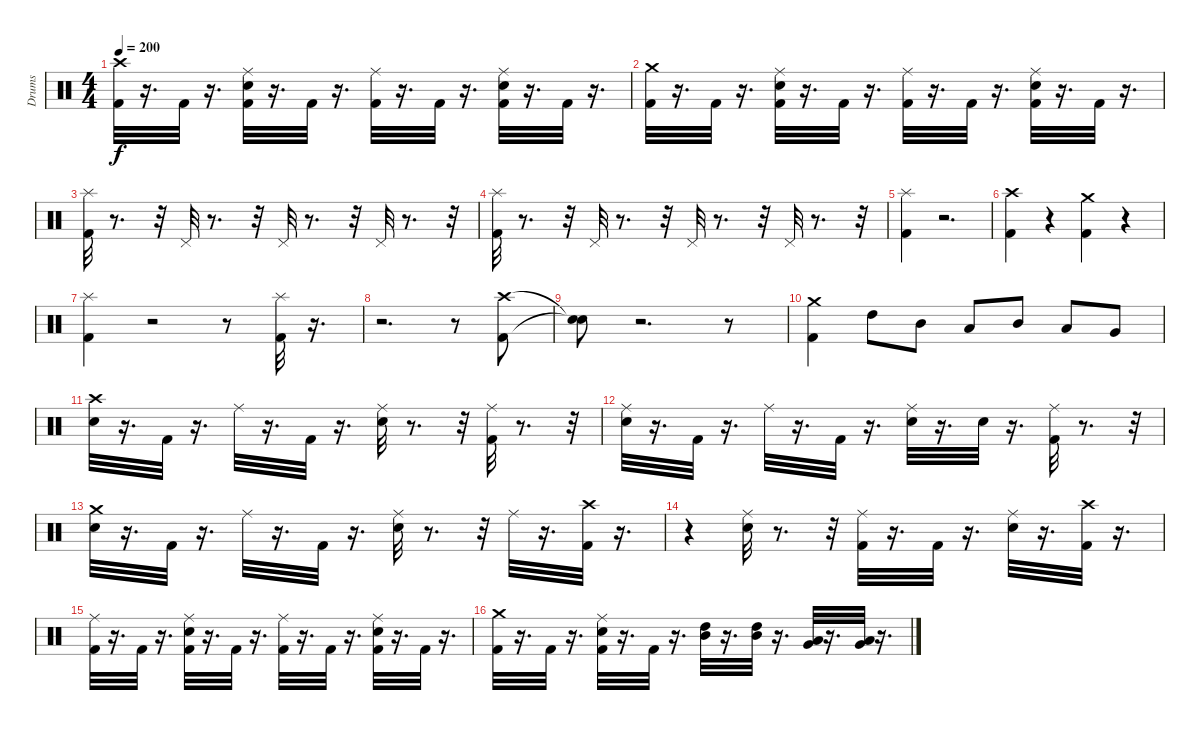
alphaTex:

\track ("Drums" "Drums") {instrument percussion}
\staff {score}
\articulation defaults
\ts (4 4)
\tempo 200
\clef neutral
\ks c
("Crash high (hit)" "Kick (hit) 2").32{dy f} r.16{d} "Kick (hit) 2".32 r.16{d} ("Electric Snare (hit)" "Ride (middle)" "Kick (hit) 2").32 r.16{d} "Kick (hit) 2".32 r.16{d} ("Ride (middle)" "Kick (hit) 2").32 r.16{d} "Kick (hit) 2".32 r.16{d} ("Electric Snare (hit)" "Ride (middle)" "Kick (hit) 2").32 r.16{d} "Kick (hit) 2".32 r.16{d} |
("Kick (hit) 2" "Crash medium (hit)").32 r.16{d} "Kick (hit) 2".32 r.16{d} ("Kick (hit) 2" "Electric Snare (hit)" "Ride (middle)").32 r.16{d} "Kick (hit) 2".32 r.16{d} ("Kick (hit) 2" "Ride (middle)").32 r.16{d} "Kick (hit) 2".32 r.16{d} ("Kick (hit) 2" "Electric Snare (hit)" "Ride (middle)").32 r.16{d} "Kick (hit) 2".32 r.16{d} |
("Splash (hit)" "Kick (hit) 2").32 r.8{d} r.32 "Pedal Hi-Hat (hit)".32 r.8{d} r.32 "Pedal Hi-Hat (hit)".32 r.8{d} r.32 "Pedal Hi-Hat (hit)".32 r.8{d} r.32 |
("Splash (hit)" "Kick (hit) 2").32 r.8{d} r.32 "Pedal Hi-Hat (hit)".32 r.8{d} r.32 "Pedal Hi-Hat (hit)".32 r.8{d} r.32 "Pedal Hi-Hat (hit)".32 r.8{d} r.32 |
("Splash (hit)" "Kick (hit) 2").4 r.2{d} |
("Crash high (hit)" "Kick (hit) 2").4 r.4 ("Crash medium (hit)" "Kick (hit) 2").4 r.4 |
("Splash (hit)" "Kick (hit) 2").4 r.2 r.8 ("Splash (hit)" "Kick (hit) 2").32 r.16{d} |
r.2{d} r.8 ("Crash high (hit)" "Kick (hit) 2").8 |
("Snare (hit)"{t} "Snare (hit)"{t}).8 r.2{d} r.8 |
("Crash medium (hit)" "Kick (hit) 2").4 "High Tom (hit)".8 "Mid Tom (hit)".8 "Low Tom (hit)".8 "Mid Tom (hit)".8 "Low Tom (hit)".8 "Very Low Tom (hit)".8 |
("Crash high (hit)" "Electric Snare (hit)").32 r.16{d} "Kick (hit) 2".32 r.16{d} "Ride (middle)".32 r.16{d} "Kick (hit) 2".32 r.16{d} ("Electric Snare (hit)" "Ride (middle)").32 r.8{d} r.32 ("Ride (middle)" "Kick (hit) 2").32 r.8{d} r.32 |
("Electric Snare (hit)" "Ride (middle)").32 r.16{d} "Kick (hit) 2".32 r.16{d} "Ride (middle)".32 r.16{d} "Kick (hit) 2".32 r.16{d} ("Ride (middle)" "Electric Snare (hit)").32 r.16{d} "Electric Snare (hit)".32 r.16{d} ("Ride (middle)" "Kick (hit) 2").32 r.8{d} r.32 |
("Electric Snare (hit)" "Crash medium (hit)").32 r.16{d} "Kick (hit) 2".32 r.16{d} "Ride (middle)".32 r.16{d} "Kick (hit) 2".32 r.16{d} ("Ride (middle)" "Electric Snare (hit)").32 r.8{d} r.32 "Ride (middle)".32 r.16{d} ("Crash high (hit)" "Kick (hit) 2").32 r.16{d} |
r.4 ("Electric Snare (hit)" "Ride (middle)").32 r.8{d} r.32 ("Ride (middle)" "Kick (hit) 2").32 r.16{d} "Kick (hit) 2".32 r.16{d} ("Ride (middle)" "Electric Snare (hit)").32 r.16{d} ("Kick (hit) 2" "Crash high (hit)").32 r.16{d} |
("Ride (middle)" "Kick (hit) 2").32 r.16{d} "Kick (hit) 2".32 r.16{d} ("Ride (middle)" "Kick (hit) 2" "Electric Snare (hit)").32 r.16{d} "Kick (hit) 2".32 r.16{d} ("Kick (hit) 2" "Ride (middle)").32 r.16{d} "Kick (hit) 2".32 r.16{d} ("Kick (hit) 2" "Electric Snare (hit)" "Ride (middle)").32 r.16{d} "Kick (hit) 2".32 r.16{d} |
("Crash medium (hit)" "Kick (hit) 2").32 r.16{d} "Kick (hit) 2".32 r.16{d} ("Kick (hit) 2" "Ride (middle)" "Electric Snare (hit)").32 r.16{d} "Kick (hit) 2".32 r.16{d} ("Mid Tom (hit)" "High Tom (hit)").32 r.16{d} ("Mid Tom (hit)" "High Tom (hit)").32 r.16{d} ("Very Low Tom (hit)" "Low Tom (hit)").32 r.16{d} ("Low Tom (hit)" "Very Low Tom (hit)").32 r.16{d}
